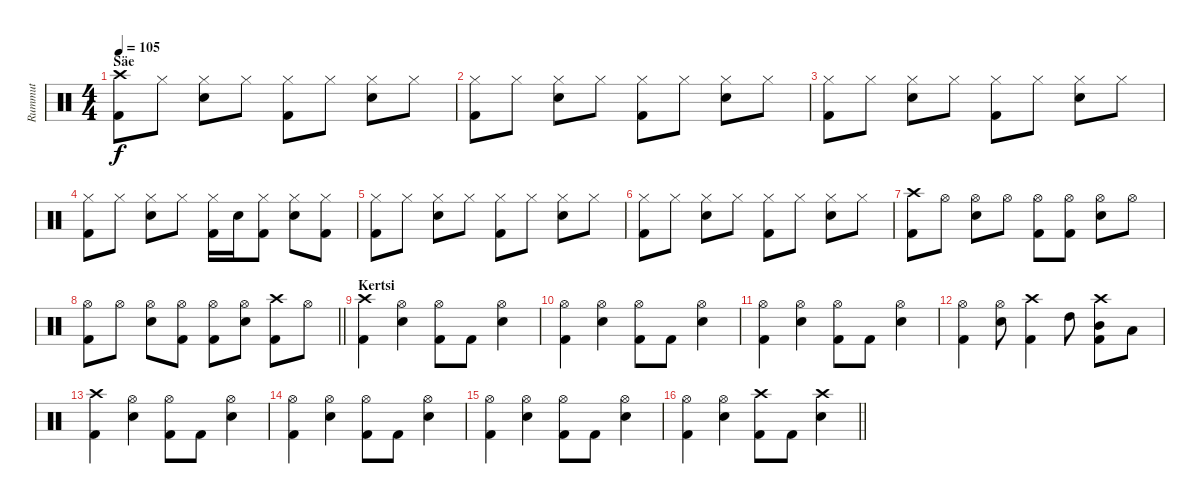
\track ("Rummut" "Rummut") {instrument percussion}
\staff {score}
\articulation defaults
\ts (4 4)
\section ("" "Säe")
\tempo 105
\clef neutral
\ks c
("Crash high (hit)" "Kick (hit) 2").8{dy f} "Hi-Hat (closed)".8 ("Hi-Hat (closed)" "Snare (hit) 2").8 "Hi-Hat (closed)".8 ("Hi-Hat (closed)" "Kick (hit) 2").8 "Hi-Hat (closed)".8 ("Hi-Hat (closed)" "Snare (hit) 2").8 "Hi-Hat (closed)".8 |
("Hi-Hat (closed)" "Kick (hit) 2").8 "Hi-Hat (closed)".8 ("Hi-Hat (closed)" "Snare (hit) 2").8 "Hi-Hat (closed)".8 ("Hi-Hat (closed)" "Kick (hit) 2").8 "Hi-Hat (closed)".8 ("Hi-Hat (closed)" "Snare (hit) 2").8 "Hi-Hat (closed)".8 |
("Hi-Hat (closed)" "Kick (hit) 2").8 "Hi-Hat (closed)".8 ("Hi-Hat (closed)" "Snare (hit) 2").8 "Hi-Hat (closed)".8 ("Hi-Hat (closed)" "Kick (hit) 2").8 "Hi-Hat (closed)".8 ("Hi-Hat (closed)" "Snare (hit) 2").8 "Hi-Hat (closed)".8 |
("Hi-Hat (closed)" "Kick (hit) 2").8 "Hi-Hat (closed)".8 ("Hi-Hat (closed)" "Snare (hit) 2").8 "Hi-Hat (closed)".8 ("Hi-Hat (closed)" "Kick (hit) 2").16 "Snare (hit) 2".16 ("Hi-Hat (closed)" "Kick (hit) 2").8 ("Hi-Hat (closed)" "Snare (hit) 2").8 ("Hi-Hat (closed)" "Kick (hit) 2").8 |
("Hi-Hat (closed)" "Kick (hit) 2").8 "Hi-Hat (closed)".8 ("Hi-Hat (closed)" "Snare (hit) 2").8 "Hi-Hat (closed)".8 ("Hi-Hat (closed)" "Kick (hit) 2").8 "Hi-Hat (closed)".8 ("Hi-Hat (closed)" "Snare (hit) 2").8 "Hi-Hat (closed)".8 |
("Hi-Hat (closed)" "Kick (hit) 2").8 "Hi-Hat (closed)".8 ("Hi-Hat (closed)" "Snare (hit) 2").8 "Hi-Hat (closed)".8 ("Hi-Hat (closed)" "Kick (hit) 2").8 "Hi-Hat (closed)".8 ("Hi-Hat (closed)" "Snare (hit) 2").8 "Hi-Hat (closed)".8 |
("Crash high (hit)" "Kick (hit) 2").8 "Hi-Hat (open)".8 ("Hi-Hat (open)" "Snare (hit) 2").8 "Hi-Hat (open)".8 ("Hi-Hat (open)" "Kick (hit) 2").8 ("Hi-Hat (open)" "Kick (hit) 2").8 ("Hi-Hat (open)" "Snare (hit) 2").8 "Hi-Hat (open)".8 |
\barLineRight lightlight
("Hi-Hat (open)" "Kick (hit) 2").8 "Hi-Hat (open)".8 ("Hi-Hat (open)" "Snare (hit) 2").8 ("Hi-Hat (open)" "Kick (hit) 2").8 ("Hi-Hat (open)" "Kick (hit) 2").8 ("Hi-Hat (open)" "Snare (hit) 2").8 ("Crash high (hit)" "Kick (hit) 2").8 "Hi-Hat (open)".8 |
\section ("" "Kertsi")
("Crash high (hit)" "Kick (hit) 2").4 ("Hi-Hat (open)" "Snare (hit) 2").4 ("Hi-Hat (open)" "Kick (hit) 2").8 "Kick (hit) 2".8 ("Hi-Hat (open)" "Snare (hit) 2").4 |
("Hi-Hat (open)" "Kick (hit) 2").4 ("Hi-Hat (open)" "Snare (hit) 2").4 ("Hi-Hat (open)" "Kick (hit) 2").8 "Kick (hit) 2".8 ("Hi-Hat (open)" "Snare (hit) 2").4 |
("Hi-Hat (open)" "Kick (hit) 2").4 ("Hi-Hat (open)" "Snare (hit) 2").4 ("Hi-Hat (open)" "Kick (hit) 2").8 "Kick (hit) 2".8 ("Hi-Hat (open)" "Snare (hit) 2").4 |
("Hi-Hat (open)" "Kick (hit) 2").4 ("Hi-Hat (open)" "Snare (hit) 2").8 ("Crash high (hit)" "Kick (hit) 2").4 "High Tom (hit)".8 ("Crash high (hit)" "Mid Tom (hit)" "Kick (hit) 2").8 "Low Tom (hit)".8 |
("Crash high (hit)" "Kick (hit) 2").4 ("Hi-Hat (open)" "Snare (hit) 2").4 ("Hi-Hat (open)" "Kick (hit) 2").8 "Kick (hit) 2".8 ("Hi-Hat (open)" "Snare (hit) 2").4 |
("Hi-Hat (open)" "Kick (hit) 2").4 ("Hi-Hat (open)" "Snare (hit) 2").4 ("Hi-Hat (open)" "Kick (hit) 2").8 "Kick (hit) 2".8 ("Hi-Hat (open)" "Snare (hit) 2").4 |
("Hi-Hat (open)" "Kick (hit) 2").4 ("Hi-Hat (open)" "Snare (hit) 2").4 ("Hi-Hat (open)" "Kick (hit) 2").8 "Kick (hit) 2".8 ("Hi-Hat (open)" "Snare (hit) 2").4 |
\barLineRight lightlight
("Hi-Hat (open)" "Kick (hit) 2").4 ("Hi-Hat (open)" "Snare (hit) 2").4 ("Crash high (hit)" "Kick (hit) 2").8 "Kick (hit) 2".8 ("Crash high (hit)" "Snare (hit) 2").4
